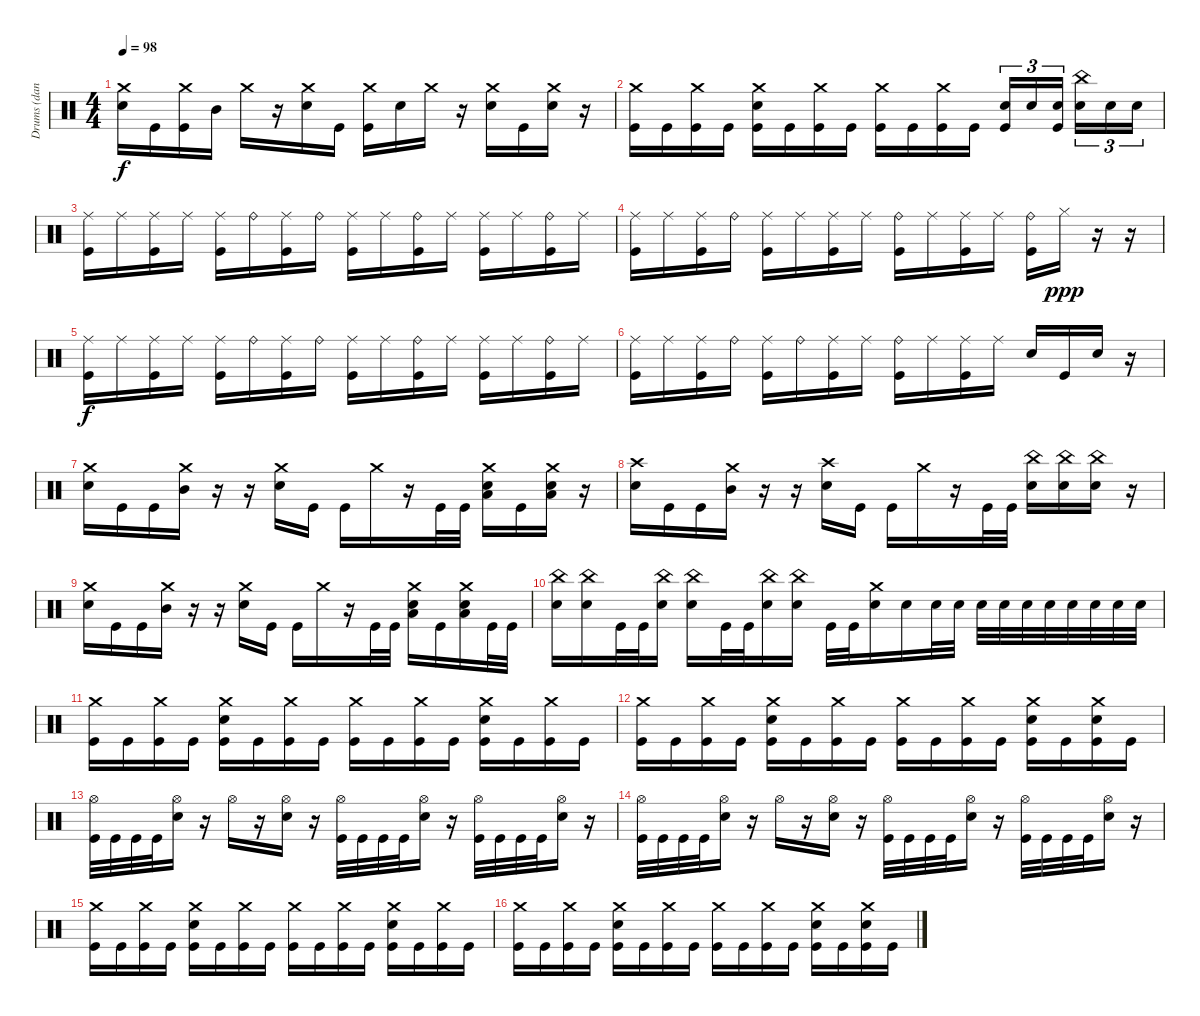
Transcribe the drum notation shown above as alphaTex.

\track ("Drums (dan)" "Drums (dan") {instrument percussion}
\staff {score}
\articulation defaults
\ts (4 4)
\tempo 98
\clef neutral
\ks c
("Crash medium (hit)" "Snare (hit) 2").16{dy f} "Kick (hit)".16 ("Crash medium (hit)" "Kick (hit)").16 "Mid Tom (hit)".16 "Crash medium (hit)".16 r.16 ("Crash medium (hit)" "Snare (hit) 2").16 "Kick (hit)".16 ("Crash medium (hit)" "Kick (hit)").16 "Snare (hit) 2".16 "Crash medium (hit)".16 r.16 ("Crash medium (hit)" "Snare (hit) 2").16 "Kick (hit)".16 ("Crash medium (hit)" "Snare (hit) 2").16 r.16 |
("Crash medium (hit)" "Kick (hit)").16 "Kick (hit)".16 ("Crash medium (hit)" "Kick (hit)").16 "Kick (hit)".16 ("Crash medium (hit)" "Snare (hit) 2" "Kick (hit)").16 "Kick (hit)".16 ("Crash medium (hit)" "Kick (hit)").16 "Kick (hit)".16 ("Crash medium (hit)" "Kick (hit)").16 "Kick (hit)".16 ("Crash medium (hit)" "Kick (hit)").16 "Kick (hit)".16 ("Snare (hit) 2" "Kick (hit)").16{tu (3 2)} "Snare (hit) 2".16{tu (3 2)} ("Snare (hit) 2" "Kick (hit)").16{tu (3 2)} ("China (hit)" "Snare (hit) 2").16{tu (3 2)} "Snare (hit) 2".16{tu (3 2)} "Snare (hit) 2".16{tu (3 2)} |
("Ride (middle)" "Kick (hit)").16 "Ride (middle)".16 ("Ride (middle)" "Kick (hit)").16 "Ride (middle)".16 ("Ride (middle)" "Kick (hit)").16 "Ride (bell)".16 ("Ride (middle)" "Kick (hit)").16 "Ride (bell)".16 ("Ride (middle)" "Kick (hit)").16 "Ride (middle)".16 ("Ride (bell)" "Kick (hit)").16 "Ride (middle)".16 ("Ride (middle)" "Kick (hit)").16 "Ride (middle)".16 ("Ride (bell)" "Kick (hit)").16 "Ride (middle)".16 |
("Ride (middle)" "Kick (hit)").16 "Ride (middle)".16 ("Ride (middle)" "Kick (hit)").16 "Ride (bell)".16 ("Ride (middle)" "Kick (hit)").16 "Ride (middle)".16 ("Ride (middle)" "Kick (hit)").16 "Ride (middle)".16 ("Ride (bell)" "Kick (hit)").16 "Ride (middle)".16 ("Ride (middle)" "Kick (hit)").16 "Ride (middle)".16 ("Ride (bell)" "Kick (hit)").16 "Hi-Hat (closed)".16{dy ppp} r.16 r.16 |
("Ride (middle)" "Kick (hit)").16{dy f} "Ride (middle)".16 ("Ride (middle)" "Kick (hit)").16 "Ride (middle)".16 ("Ride (middle)" "Kick (hit)").16 "Ride (bell)".16 ("Ride (middle)" "Kick (hit)").16 "Ride (bell)".16 ("Ride (middle)" "Kick (hit)").16 "Ride (middle)".16 ("Ride (bell)" "Kick (hit)").16 "Ride (middle)".16 ("Ride (middle)" "Kick (hit)").16 "Ride (middle)".16 ("Ride (bell)" "Kick (hit)").16 "Ride (middle)".16 |
("Ride (middle)" "Kick (hit)").16 "Ride (middle)".16 ("Ride (middle)" "Kick (hit)").16 "Ride (bell)".16 ("Ride (middle)" "Kick (hit)").16 "Ride (bell)".16 ("Ride (middle)" "Kick (hit)").16 "Ride (middle)".16 ("Ride (bell)" "Kick (hit)").16 "Ride (middle)".16 ("Ride (middle)" "Kick (hit)").16 "Ride (middle)".16 "Snare (hit) 2".16 "Kick (hit)".16 "Snare (hit) 2".16 r.16 |
("Crash medium (hit)" "Snare (hit) 2").16 "Kick (hit)".16 "Kick (hit)".16 ("Crash medium (hit)" "Mid Tom (hit)").16 r.16 r.16 ("Crash medium (hit)" "Snare (hit) 2").16 "Kick (hit)".16 "Kick (hit)".16 "Crash medium (hit)".16 r.16 "Kick (hit)".32 "Kick (hit)".32 ("Crash medium (hit)" "Snare (hit) 2" "Low Tom (hit)").16 "Kick (hit)".16 ("Crash medium (hit)" "Snare (hit) 2" "Low Tom (hit)").16 r.16 |
("Crash high (hit)" "Snare (hit) 2").16 "Kick (hit)".16 "Kick (hit)".16 ("Crash medium (hit)" "Mid Tom (hit)").16 r.16 r.16 ("Crash high (hit)" "Snare (hit) 2").16 "Kick (hit)".16 "Kick (hit)".16 "Crash medium (hit)".16 r.16 "Kick (hit)".32 "Kick (hit)".32 ("China (hit)" "Snare (hit) 2").16 ("China (hit)" "Snare (hit) 2").16 ("China (hit)" "Snare (hit) 2").16 r.16 |
("Crash medium (hit)" "Snare (hit) 2").16 "Kick (hit)".16 "Kick (hit)".16 ("Crash medium (hit)" "Mid Tom (hit)").16 r.16 r.16 ("Crash medium (hit)" "Snare (hit) 2").16 "Kick (hit)".16 "Kick (hit)".16 "Crash medium (hit)".16 r.16 "Kick (hit)".32 "Kick (hit)".32 ("Crash medium (hit)" "Snare (hit) 2" "Low Tom (hit)").16 "Kick (hit)".16 ("Crash medium (hit)" "Snare (hit) 2" "Low Tom (hit)").16 "Kick (hit)".32 "Kick (hit)".32 |
("China (hit)" "Snare (hit) 2").16 ("China (hit)" "Snare (hit) 2").16 "Kick (hit)".32 "Kick (hit)".32 ("China (hit)" "Snare (hit) 2").16 ("China (hit)" "Snare (hit) 2").16 "Kick (hit)".32 "Kick (hit)".32 ("China (hit)" "Snare (hit) 2").16 ("China (hit)" "Snare (hit) 2").16 "Kick (hit)".32 "Kick (hit)".32 ("Crash medium (hit)" "Snare (hit) 2").16 "Snare (hit) 2".16 "Snare (hit) 2".32 "Snare (hit) 2".32 "Snare (hit) 2".32 "Snare (hit) 2".32 "Snare (hit) 2".32 "Snare (hit) 2".32 "Snare (hit) 2".32 "Snare (hit) 2".32 "Snare (hit) 2".32 "Snare (hit) 2".32 |
("Crash medium (hit)" "Kick (hit)").16 "Kick (hit)".16 ("Crash medium (hit)" "Kick (hit)").16 "Kick (hit)".16 ("Crash medium (hit)" "Snare (hit) 2" "Kick (hit)").16 "Kick (hit)".16 ("Crash medium (hit)" "Kick (hit)").16 "Kick (hit)".16 ("Crash medium (hit)" "Kick (hit)").16 "Kick (hit)".16 ("Crash medium (hit)" "Kick (hit)").16 "Kick (hit)".16 ("Crash medium (hit)" "Snare (hit) 2" "Kick (hit)").16 "Kick (hit)".16 ("Crash medium (hit)" "Kick (hit)").16 "Kick (hit)".16 |
("Crash medium (hit)" "Kick (hit)").16 "Kick (hit)".16 ("Crash medium (hit)" "Kick (hit)").16 "Kick (hit)".16 ("Crash medium (hit)" "Snare (hit) 2" "Kick (hit)").16 "Kick (hit)".16 ("Crash medium (hit)" "Kick (hit)").16 "Kick (hit)".16 ("Crash medium (hit)" "Kick (hit)").16 "Kick (hit)".16 ("Crash medium (hit)" "Kick (hit)").16 "Kick (hit)".16 ("Crash medium (hit)" "Snare (hit) 2" "Kick (hit)").16 "Kick (hit)".16 ("Crash medium (hit)" "Snare (hit) 2" "Kick (hit)").16 "Kick (hit)".16 |
("Hi-Hat (open)" "Kick (hit)").32 "Kick (hit)".32 "Kick (hit)".32 "Kick (hit)".32 ("Hi-Hat (open)" "Snare (hit) 2").16 r.16 "Hi-Hat (open)".16 r.16 ("Hi-Hat (open)" "Snare (hit) 2").16 r.16 ("Hi-Hat (open)" "Kick (hit)").32 "Kick (hit)".32 "Kick (hit)".32 "Kick (hit)".32 ("Hi-Hat (open)" "Snare (hit) 2").16 r.16 ("Hi-Hat (open)" "Kick (hit)").32 "Kick (hit)".32 "Kick (hit)".32 "Kick (hit)".32 ("Hi-Hat (open)" "Snare (hit) 2").16 r.16 |
("Hi-Hat (open)" "Kick (hit)").32 "Kick (hit)".32 "Kick (hit)".32 "Kick (hit)".32 ("Hi-Hat (open)" "Snare (hit) 2").16 r.16 "Hi-Hat (open)".16 r.16 ("Hi-Hat (open)" "Snare (hit) 2").16 r.16 ("Hi-Hat (open)" "Kick (hit)").32 "Kick (hit)".32 "Kick (hit)".32 "Kick (hit)".32 ("Hi-Hat (open)" "Snare (hit) 2").16 r.16 ("Hi-Hat (open)" "Kick (hit)").32 "Kick (hit)".32 "Kick (hit)".32 "Kick (hit)".32 ("Hi-Hat (open)" "Snare (hit) 2").16 r.16 |
("Crash medium (hit)" "Kick (hit)").16 "Kick (hit)".16 ("Crash medium (hit)" "Kick (hit)").16 "Kick (hit)".16 ("Crash medium (hit)" "Snare (hit) 2" "Kick (hit)").16 "Kick (hit)".16 ("Crash medium (hit)" "Kick (hit)").16 "Kick (hit)".16 ("Crash medium (hit)" "Kick (hit)").16 "Kick (hit)".16 ("Crash medium (hit)" "Kick (hit)").16 "Kick (hit)".16 ("Crash medium (hit)" "Snare (hit) 2" "Kick (hit)").16 "Kick (hit)".16 ("Crash medium (hit)" "Kick (hit)").16 "Kick (hit)".16 |
("Crash medium (hit)" "Kick (hit)").16 "Kick (hit)".16 ("Crash medium (hit)" "Kick (hit)").16 "Kick (hit)".16 ("Crash medium (hit)" "Snare (hit) 2" "Kick (hit)").16 "Kick (hit)".16 ("Crash medium (hit)" "Kick (hit)").16 "Kick (hit)".16 ("Crash medium (hit)" "Kick (hit)").16 "Kick (hit)".16 ("Crash medium (hit)" "Kick (hit)").16 "Kick (hit)".16 ("Crash medium (hit)" "Snare (hit) 2" "Kick (hit)").16 "Kick (hit)".16 ("Crash medium (hit)" "Snare (hit) 2" "Kick (hit)").16 "Kick (hit)".16
